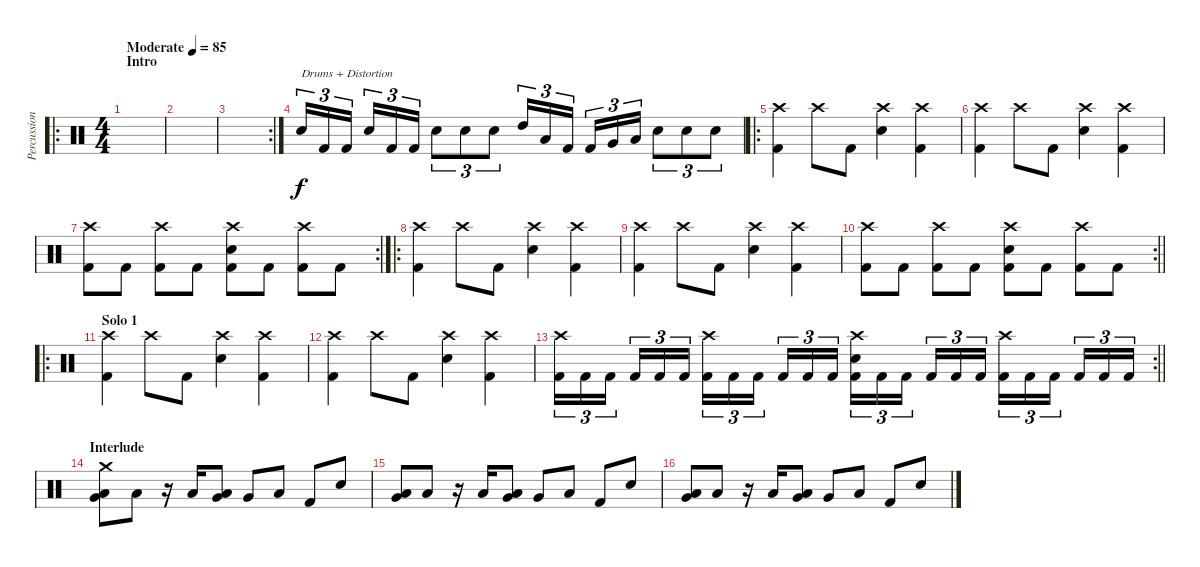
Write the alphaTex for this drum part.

\track ("Percussion" "Percussion") {instrument percussion}
\staff {score}
\articulation defaults
\ro
\ts (4 4)
\section ("" "Intro")
\tempo (85 "Moderate")
\clef neutral
\ks c
|
|
\rc 2
|
"Electric Snare (hit)".16{tu (3 2) txt "Drums + Distortion"} "Kick (hit) 2".16{tu (3 2)} "Kick (hit) 2".16{tu (3 2) beam splitsecondary} "Electric Snare (hit)".16{tu (3 2)} "Kick (hit) 2".16{tu (3 2)} "Kick (hit) 2".16{tu (3 2)} "Electric Snare (hit)".8{tu (3 2)} "Electric Snare (hit)".8{tu (3 2)} "Electric Snare (hit)".8{tu (3 2)} "High Tom (hit)".16{tu (3 2)} "Low Tom (hit)".16{tu (3 2)} "Kick (hit) 2".16{tu (3 2) beam splitsecondary} "Kick (hit) 2".16{tu (3 2)} "Very Low Tom (hit)".16{tu (3 2)} "Low Floor Tom (hit)".16{tu (3 2)} "Electric Snare (hit)".8{tu (3 2)} "Electric Snare (hit)".8{tu (3 2)} "Electric Snare (hit)".8{tu (3 2)} |
\ro
("Crash high (hit)" "Kick (hit) 2").4 "Crash high (hit)".8 "Kick (hit) 2".8 ("Crash high (hit)" "Electric Snare (hit)").4 ("Crash high (hit)" "Kick (hit) 2").4 |
("Crash high (hit)" "Kick (hit) 2").4 "Crash high (hit)".8 "Kick (hit) 2".8 ("Crash high (hit)" "Electric Snare (hit)").4 ("Crash high (hit)" "Kick (hit) 2").4 |
\rc 2
("Crash high (hit)" "Kick (hit) 2").8 "Kick (hit) 2".8 ("Crash high (hit)" "Kick (hit) 2").8 "Kick (hit) 2".8 ("Crash high (hit)" "Electric Snare (hit)" "Kick (hit) 2").8 "Kick (hit) 2".8 ("Crash high (hit)" "Kick (hit) 2").8 "Kick (hit) 2".8 |
\ro
("Crash high (hit)" "Kick (hit) 2").4 "Crash high (hit)".8 "Kick (hit) 2".8 ("Crash high (hit)" "Electric Snare (hit)").4 ("Crash high (hit)" "Kick (hit) 2").4 |
("Crash high (hit)" "Kick (hit) 2").4 "Crash high (hit)".8 "Kick (hit) 2".8 ("Crash high (hit)" "Electric Snare (hit)").4 ("Crash high (hit)" "Kick (hit) 2").4 |
\rc 2
\barLineRight lightlight
("Crash high (hit)" "Kick (hit) 2").8 "Kick (hit) 2".8 ("Crash high (hit)" "Kick (hit) 2").8 "Kick (hit) 2".8 ("Crash high (hit)" "Electric Snare (hit)" "Kick (hit) 2").8 "Kick (hit) 2".8 ("Crash high (hit)" "Kick (hit) 2").8 "Kick (hit) 2".8 |
\ro
\section ("" "Solo 1")
("Crash high (hit)" "Kick (hit) 2").4 "Crash high (hit)".8 "Kick (hit) 2".8 ("Crash high (hit)" "Electric Snare (hit)").4 ("Crash high (hit)" "Kick (hit) 2").4 |
("Crash high (hit)" "Kick (hit) 2").4 "Crash high (hit)".8 "Kick (hit) 2".8 ("Crash high (hit)" "Electric Snare (hit)").4 ("Crash high (hit)" "Kick (hit) 2").4 |
\rc 2
\barLineRight lightlight
("Crash high (hit)" "Kick (hit) 2").16{tu (3 2)} "Kick (hit) 2".16{tu (3 2)} "Kick (hit) 2".16{tu (3 2) beam splitsecondary} "Kick (hit) 2".16{tu (3 2)} "Kick (hit) 2".16{tu (3 2)} "Kick (hit) 2".16{tu (3 2)} ("Crash high (hit)" "Kick (hit) 2").16{tu (3 2)} "Kick (hit) 2".16{tu (3 2)} "Kick (hit) 2".16{tu (3 2) beam splitsecondary} "Kick (hit) 2".16{tu (3 2)} "Kick (hit) 2".16{tu (3 2)} "Kick (hit) 2".16{tu (3 2)} ("Crash high (hit)" "Electric Snare (hit)" "Kick (hit) 2").16{tu (3 2)} "Kick (hit) 2".16{tu (3 2)} "Kick (hit) 2".16{tu (3 2) beam splitsecondary} "Kick (hit) 2".16{tu (3 2)} "Kick (hit) 2".16{tu (3 2)} "Kick (hit) 2".16{tu (3 2)} ("Crash high (hit)" "Kick (hit) 2").16{tu (3 2)} "Kick (hit) 2".16{tu (3 2)} "Kick (hit) 2".16{tu (3 2) beam splitsecondary} "Kick (hit) 2".16{tu (3 2)} "Kick (hit) 2".16{tu (3 2)} "Kick (hit) 2".16{tu (3 2)} |
\section ("" "Interlude")
("Crash medium (hit)" "Low Floor Tom (hit)" "Very Low Tom (hit)").8 "Low Floor Tom (hit)".8 r.16 "Low Floor Tom (hit)".16 ("Low Tom (hit)" "Very Low Tom (hit)").8 "Very Low Tom (hit)".8 "Low Floor Tom (hit)".8 "Kick (hit) 2".8 "Electric Snare (hit)".8 |
("Low Floor Tom (hit)" "Very Low Tom (hit)").8 "Low Floor Tom (hit)".8 r.16 "Low Floor Tom (hit)".16 ("Low Tom (hit)" "Very Low Tom (hit)").8 "Very Low Tom (hit)".8 "Low Floor Tom (hit)".8 "Kick (hit) 2".8 "Electric Snare (hit)".8 |
("Low Floor Tom (hit)" "Very Low Tom (hit)").8 "Low Floor Tom (hit)".8 r.16 "Low Floor Tom (hit)".16 ("Low Tom (hit)" "Very Low Tom (hit)").8 "Very Low Tom (hit)".8 "Low Floor Tom (hit)".8 "Kick (hit) 2".8 "Electric Snare (hit)".8
